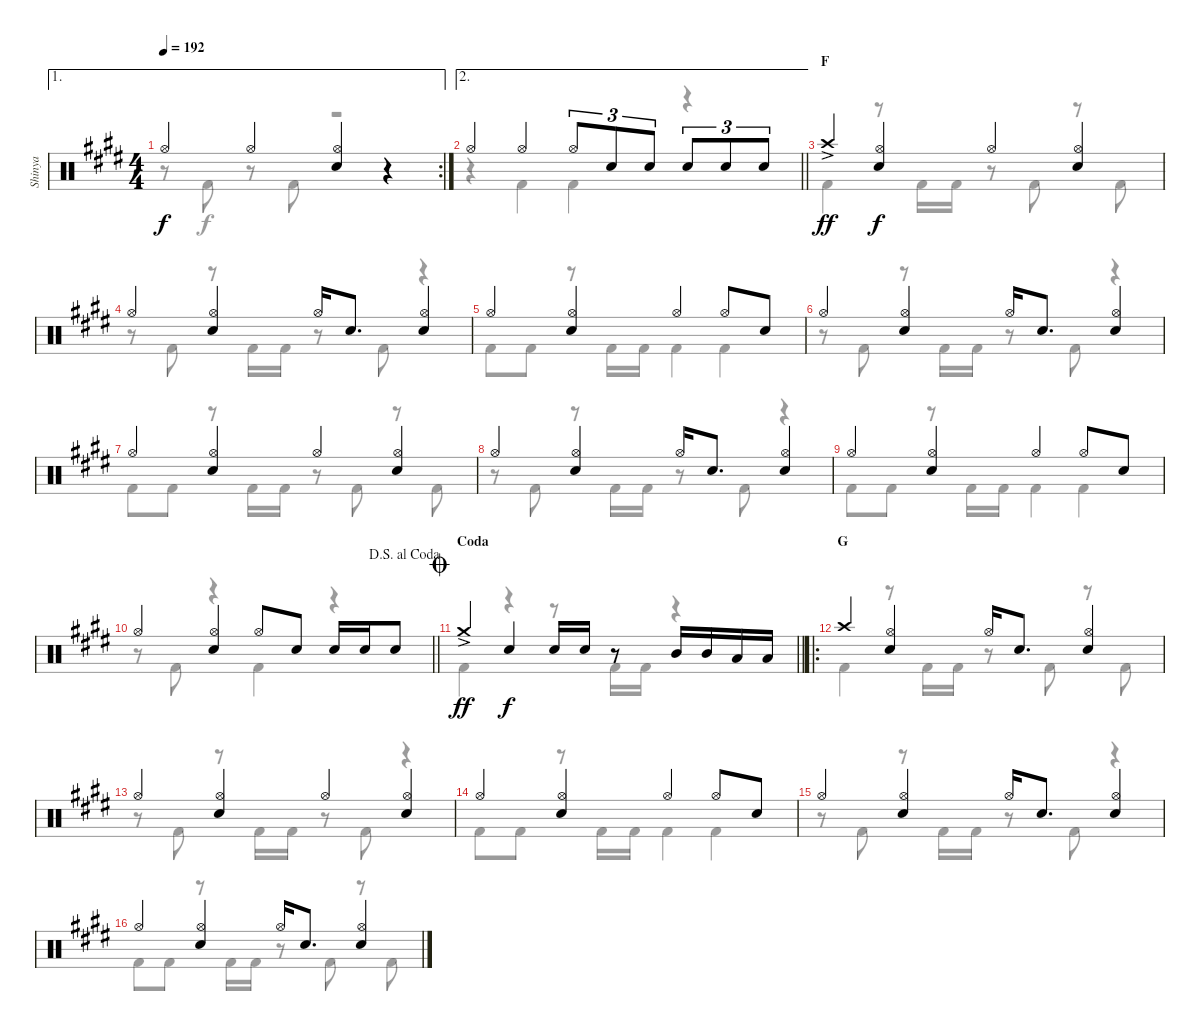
\track ("Shinya" "Shinya") {instrument percussion}
\staff {score}
\articulation defaults
\voice
\ae 1
\rc 2
\ts (4 4)
\tempo 192
\clef neutral
\ks c#minor "Hi-Hat (open)".4{dy f} "Hi-Hat (open)".4
("Hi-Hat (open)" "Snare (hit) 2").4 r.4 |
\ae 2
\barLineRight lightlight "Hi-Hat (open)".4 "Hi-Hat (open)".4 "Hi-Hat (open)".8{tu (3 2)} "Snare (hit) 2".8{tu (3 2)} "Snare (hit) 2".8{tu (3 2)} "Snare (hit) 2".8{tu (3 2)} "Snare (hit) 2".8{tu (3 2)} "Snare (hit) 2".8{tu (3 2)}
|
\section ("" "F")
"Crash high (hit)"{ac}.4{dy ff} ("Hi-Hat (open)" "Snare (hit) 2").4{dy f} "Hi-Hat (open)".4 ("Hi-Hat (open)" "Snare (hit) 2").4 |
"Hi-Hat (open)".4 ("Hi-Hat (open)" "Snare (hit) 2").4 "Hi-Hat (open)".16 "Snare (hit) 2".8{d} ("Hi-Hat (open)" "Snare (hit) 2").4 |
"Hi-Hat (open)".4 ("Hi-Hat (open)" "Snare (hit) 2").4 "Hi-Hat (open)".4 "Hi-Hat (open)".8 "Snare (hit) 2".8 |
"Hi-Hat (open)".4 ("Hi-Hat (open)" "Snare (hit) 2").4 "Hi-Hat (open)".16 "Snare (hit) 2".8{d} ("Hi-Hat (open)" "Snare (hit) 2").4 |
"Hi-Hat (open)".4 ("Hi-Hat (open)" "Snare (hit) 2").4 "Hi-Hat (open)".4 ("Hi-Hat (open)" "Snare (hit) 2").4 |
"Hi-Hat (open)".4 ("Hi-Hat (open)" "Snare (hit) 2").4 "Hi-Hat (open)".16 "Snare (hit) 2".8{d} ("Hi-Hat (open)" "Snare (hit) 2").4 |
"Hi-Hat (open)".4 ("Hi-Hat (open)" "Snare (hit) 2").4 "Hi-Hat (open)".4 "Hi-Hat (open)".8 "Snare (hit) 2".8 |
\jump dalsegnoalcoda
\barLineRight lightlight "Hi-Hat (open)".4
("Hi-Hat (open)" "Snare (hit) 2").4 "Hi-Hat (open)".8 "Snare (hit) 2".8 "Snare (hit) 2".16 "Snare (hit) 2".16 "Snare (hit) 2".8 |
\section ("" "Coda")
\jump coda
\barLineRight lightlight "Crash medium (hit)"{ac}.4{dy ff} "Snare (hit) 2".4{dy f} "Snare (hit) 2".16 "Snare (hit) 2".16
r.8 "Mid Tom (hit)".16 "Mid Tom (hit)".16 "Low Tom (hit)".16 "Low Tom (hit)".16 |
\ro
\section ("" "G")
"Crash high (hit)".4 ("Hi-Hat (open)" "Snare (hit) 2").4 "Hi-Hat (open)".16 "Snare (hit) 2".8{d} ("Hi-Hat (open)" "Snare (hit) 2").4 |
"Hi-Hat (open)".4 ("Hi-Hat (open)" "Snare (hit) 2").4 "Hi-Hat (open)".4 ("Hi-Hat (open)" "Snare (hit) 2").4 |
"Hi-Hat (open)".4 ("Hi-Hat (open)" "Snare (hit) 2").4 "Hi-Hat (open)".4 "Hi-Hat (open)".8 "Snare (hit) 2".8 |
"Hi-Hat (open)".4 ("Hi-Hat (open)" "Snare (hit) 2").4 "Hi-Hat (open)".16 "Snare (hit) 2".8{d} ("Hi-Hat (open)" "Snare (hit) 2").4 |
"Hi-Hat (open)".4 ("Hi-Hat (open)" "Snare (hit) 2").4 "Hi-Hat (open)".16 "Snare (hit) 2".8{d} ("Hi-Hat (open)" "Snare (hit) 2").4
\voice
\clef neutral
\ottava regular
\simile none
\ks c#minor
r.8{dy f} "Kick (hit) 2".8 r.8 "Kick (hit) 2".8 r.2 |
\barLineRight lightlight
r.4 "Kick (hit) 2".4 "Kick (hit) 2".4 r.4 |
"Kick (hit) 2".4 r.8 "Kick (hit) 2".16 "Kick (hit) 2".16 r.8 "Kick (hit) 2".8 r.8 "Kick (hit) 2".8 |
r.8 "Kick (hit) 2".8 r.8 "Kick (hit) 2".16 "Kick (hit) 2".16 r.8 "Kick (hit) 2".8 r.4 |
"Kick (hit) 2".8 "Kick (hit) 2".8 r.8 "Kick (hit) 2".16 "Kick (hit) 2".16 "Kick (hit) 2".4 "Kick (hit) 2".4 |
r.8 "Kick (hit) 2".8 r.8 "Kick (hit) 2".16 "Kick (hit) 2".16 r.8 "Kick (hit) 2".8 r.4 |
"Kick (hit) 2".8 "Kick (hit) 2".8 r.8 "Kick (hit) 2".16 "Kick (hit) 2".16 r.8 "Kick (hit) 2".8 r.8 "Kick (hit) 2".8 |
r.8 "Kick (hit) 2".8 r.8 "Kick (hit) 2".16 "Kick (hit) 2".16 r.8 "Kick (hit) 2".8 r.4 |
"Kick (hit) 2".8 "Kick (hit) 2".8 r.8 "Kick (hit) 2".16 "Kick (hit) 2".16 "Kick (hit) 2".4 "Kick (hit) 2".4 |
\barLineRight lightlight
r.8 "Kick (hit) 2".8 r.4 "Kick (hit) 2".4 r.4 |
\barLineRight lightlight "Kick (hit) 2".4
r.4 r.8 "Kick (hit) 2".16 "Kick (hit) 2".16 r.4 |
"Kick (hit) 2".4 r.8 "Kick (hit) 2".16 "Kick (hit) 2".16 r.8 "Kick (hit) 2".8 r.8 "Kick (hit) 2".8 |
r.8 "Kick (hit) 2".8 r.8 "Kick (hit) 2".16 "Kick (hit) 2".16 r.8 "Kick (hit) 2".8 r.4 |
"Kick (hit) 2".8 "Kick (hit) 2".8 r.8 "Kick (hit) 2".16 "Kick (hit) 2".16 "Kick (hit) 2".4 "Kick (hit) 2".4 |
r.8 "Kick (hit) 2".8 r.8 "Kick (hit) 2".16 "Kick (hit) 2".16 r.8 "Kick (hit) 2".8 r.4 |
"Kick (hit) 2".8 "Kick (hit) 2".8 r.8 "Kick (hit) 2".16 "Kick (hit) 2".16 r.8 "Kick (hit) 2".8 r.8 "Kick (hit) 2".8
